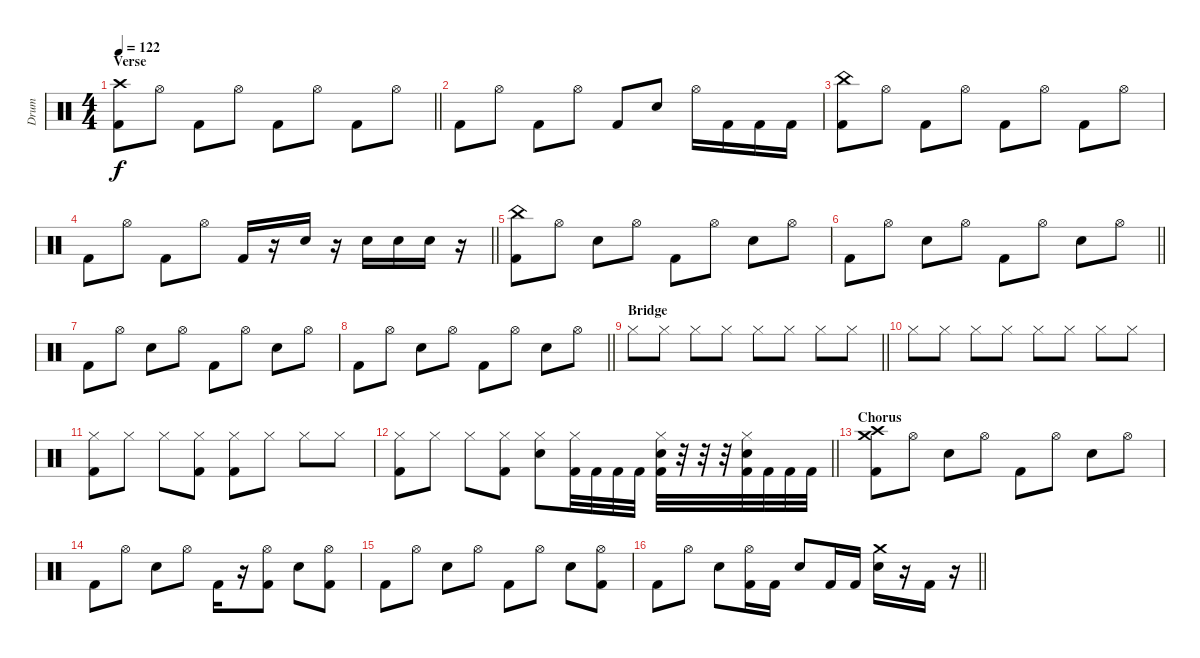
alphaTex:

\track ("Drum" "Drum") {instrument percussion}
\staff {score}
\articulation defaults
\ts (4 4)
\section ("" "Verse")
\tempo 122
\clef neutral
\barLineRight lightlight
\ks c
("Kick (hit) 2" "Crash high (hit)").8{dy f} "Hi-Hat (open)".8 "Kick (hit) 2".8 "Hi-Hat (open)".8 "Kick (hit) 2".8 "Hi-Hat (open)".8 "Kick (hit) 2".8 "Hi-Hat (open)".8 |
"Kick (hit) 2".8 "Hi-Hat (open)".8 "Kick (hit) 2".8 "Hi-Hat (open)".8 "Kick (hit) 2".8 "Snare (hit) 2".8 "Hi-Hat (open)".16 "Kick (hit) 2".16 "Kick (hit) 2".16 "Kick (hit) 2".16 |
("Kick (hit) 2" "China (hit)").8 "Hi-Hat (open)".8 "Kick (hit) 2".8 "Hi-Hat (open)".8 "Kick (hit) 2".8 "Hi-Hat (open)".8 "Kick (hit) 2".8 "Hi-Hat (open)".8 |
\barLineRight lightlight "Kick (hit) 2".8 "Hi-Hat (open)".8 "Kick (hit) 2".8 "Hi-Hat (open)".8 "Kick (hit) 2".16
r.16 "Snare (hit) 2".16 r.16 "Snare (hit) 2".16 "Snare (hit) 2".16 "Snare (hit) 2".16 r.16 |
("Kick (hit) 2" "China (hit)").8 "Hi-Hat (open)".8 "Snare (hit) 2".8 "Hi-Hat (open)".8 "Kick (hit) 2".8 "Hi-Hat (open)".8 "Snare (hit) 2".8 "Hi-Hat (open)".8 |
\barLineRight lightlight "Kick (hit) 2".8 "Hi-Hat (open)".8 "Snare (hit) 2".8 "Hi-Hat (open)".8 "Kick (hit) 2".8 "Hi-Hat (open)".8 "Snare (hit) 2".8 "Hi-Hat (open)".8
|
"Kick (hit) 2".8 "Hi-Hat (open)".8 "Snare (hit) 2".8 "Hi-Hat (open)".8 "Kick (hit) 2".8 "Hi-Hat (open)".8 "Snare (hit) 2".8 "Hi-Hat (open)".8 |
\barLineRight lightlight "Kick (hit) 2".8 "Hi-Hat (open)".8 "Snare (hit) 2".8 "Hi-Hat (open)".8 "Kick (hit) 2".8 "Hi-Hat (open)".8 "Snare (hit) 2".8 "Hi-Hat (open)".8
|
\section ("" "Bridge")
\barLineRight lightlight "Hi-Hat (closed)".8 "Hi-Hat (closed)".8 "Hi-Hat (closed)".8 "Hi-Hat (closed)".8 "Hi-Hat (closed)".8 "Hi-Hat (closed)".8 "Hi-Hat (closed)".8 "Hi-Hat (closed)".8
|
"Hi-Hat (closed)".8 "Hi-Hat (closed)".8 "Hi-Hat (closed)".8 "Hi-Hat (closed)".8 "Hi-Hat (closed)".8 "Hi-Hat (closed)".8 "Hi-Hat (closed)".8 "Hi-Hat (closed)".8 |
("Hi-Hat (closed)" "Kick (hit) 2").8 "Hi-Hat (closed)".8 "Hi-Hat (closed)".8 ("Hi-Hat (closed)" "Kick (hit) 2").8 ("Hi-Hat (closed)" "Kick (hit) 2").8 "Hi-Hat (closed)".8 "Hi-Hat (closed)".8 "Hi-Hat (closed)".8 |
\barLineRight lightlight
("Hi-Hat (closed)" "Kick (hit) 2").8 "Hi-Hat (closed)".8 "Hi-Hat (closed)".8 ("Hi-Hat (closed)" "Kick (hit) 2").8 ("Hi-Hat (closed)" "Snare (hit) 2").8 ("Hi-Hat (closed)" "Kick (hit) 2").32 "Kick (hit) 2".32 "Kick (hit) 2".32 "Kick (hit) 2".32 ("Hi-Hat (closed)" "Snare (hit) 2" "Kick (hit) 2").32 r.32 r.32 r.32 ("Hi-Hat (closed)" "Snare (hit) 2" "Kick (hit) 2").32 "Kick (hit) 2".32 "Kick (hit) 2".32 "Kick (hit) 2".32 |
\section ("" "Chorus")
("Crash high (hit)" "Crash medium (hit)" "Kick (hit) 2").8 "Hi-Hat (open)".8 "Snare (hit) 2".8 "Hi-Hat (open)".8 "Kick (hit) 2".8 "Hi-Hat (open)".8 "Snare (hit) 2".8 "Hi-Hat (open)".8 |
"Kick (hit) 2".8 "Hi-Hat (open)".8 "Snare (hit) 2".8 "Hi-Hat (open)".8 "Kick (hit) 2".16 r.16 ("Hi-Hat (open)" "Kick (hit) 2").8 "Snare (hit) 2".8 ("Hi-Hat (open)" "Kick (hit) 2").8 |
"Kick (hit) 2".8 "Hi-Hat (open)".8 "Snare (hit) 2".8 "Hi-Hat (open)".8 "Kick (hit) 2".8 "Hi-Hat (open)".8 "Snare (hit) 2".8 ("Hi-Hat (open)" "Kick (hit) 2").8 |
\barLineRight lightlight "Kick (hit) 2".8 "Hi-Hat (open)".8 "Snare (hit) 2".8
("Hi-Hat (open)" "Kick (hit) 2").16 "Kick (hit) 2".16 "Snare (hit) 2".8 "Kick (hit) 2".16 "Kick (hit) 2".16 ("Crash medium (hit)" "Snare (hit) 2").16 r.16 "Kick (hit) 2".16 r.16
